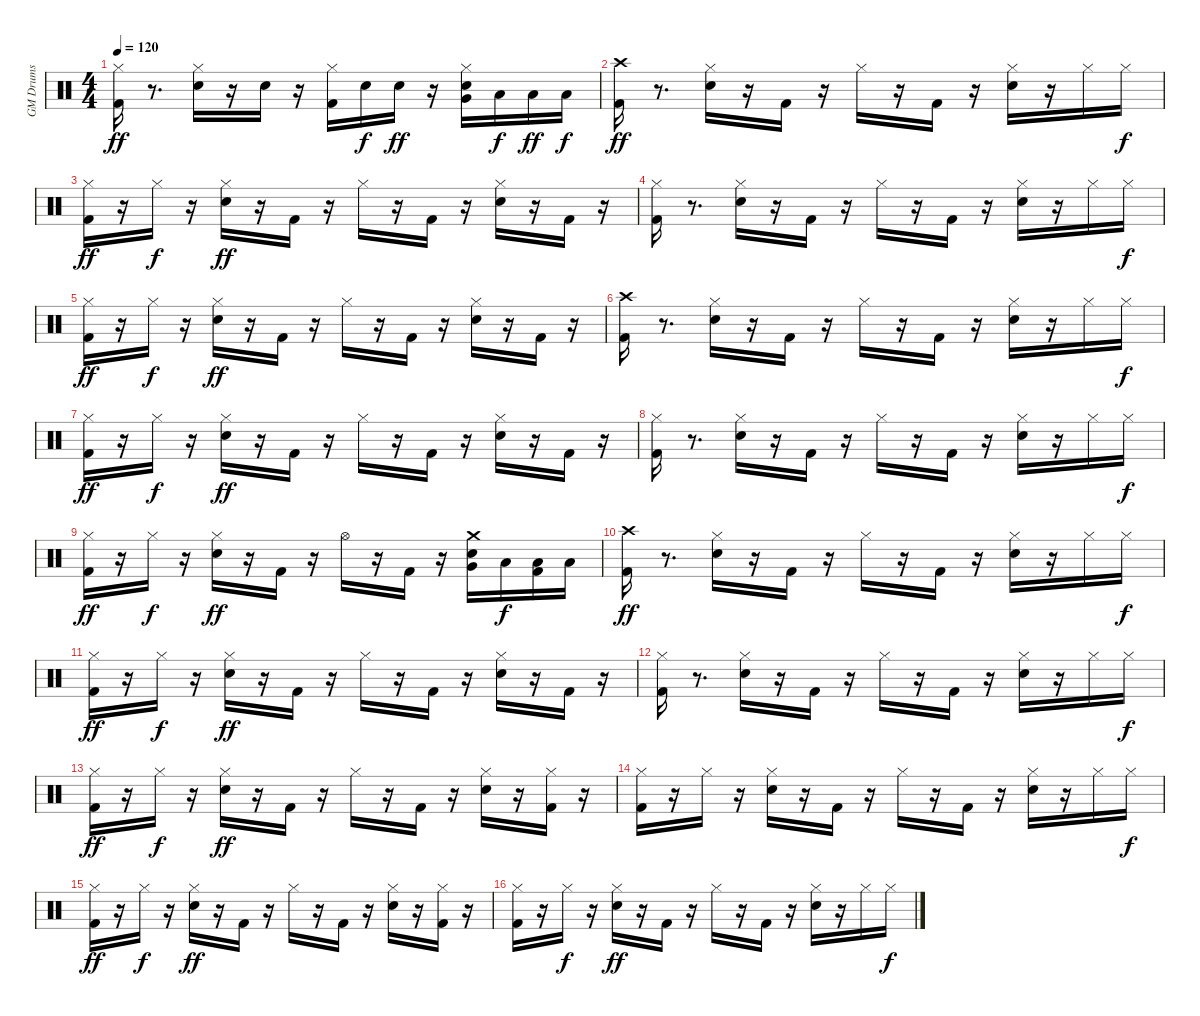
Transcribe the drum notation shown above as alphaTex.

\track ("GM Drums" "GM Drums") {instrument percussion}
\staff {score}
\articulation defaults
\ts (4 4)
\tempo 120
\clef neutral
\ks c
("Kick (hit) 2" "Hi-Hat (closed)").16{dy ff} r.8{d} ("Snare (hit) 2" "Hi-Hat (closed)").16 r.16 "Snare (hit) 2".16 r.16 ("Kick (hit) 2" "Hi-Hat (closed)").16 "Snare (hit) 2".16{dy f} "Snare (hit) 2".16{dy ff} r.16 ("Snare (hit) 2" "Hi-Hat (closed)" "Very Low Tom (hit)").16 "Low Floor Tom (hit)".16{dy f} "Low Floor Tom (hit)".16{dy ff} "Low Floor Tom (hit)".16{dy f} |
("Kick (hit) 2" "Crash high (hit)").16{dy ff} r.8{d} ("Snare (hit) 2" "Hi-Hat (closed)").16 r.16 "Kick (hit) 2".16 r.16 "Hi-Hat (closed)".16 r.16 "Kick (hit) 2".16 r.16 ("Snare (hit) 2" "Hi-Hat (closed)").16 r.16 "Hi-Hat (closed)".16 "Hi-Hat (closed)".16{dy f} |
("Kick (hit) 2" "Hi-Hat (closed)").16{dy ff} r.16 "Hi-Hat (closed)".16{dy f} r.16 ("Snare (hit) 2" "Hi-Hat (closed)").16{dy ff} r.16 "Kick (hit) 2".16 r.16 "Hi-Hat (closed)".16 r.16 "Kick (hit) 2".16 r.16 ("Snare (hit) 2" "Hi-Hat (closed)").16 r.16 "Kick (hit) 2".16 r.16 |
("Kick (hit) 2" "Hi-Hat (closed)").16 r.8{d} ("Snare (hit) 2" "Hi-Hat (closed)").16 r.16 "Kick (hit) 2".16 r.16 "Hi-Hat (closed)".16 r.16 "Kick (hit) 2".16 r.16 ("Snare (hit) 2" "Hi-Hat (closed)").16 r.16 "Hi-Hat (closed)".16 "Hi-Hat (closed)".16{dy f} |
("Kick (hit) 2" "Hi-Hat (closed)").16{dy ff} r.16 "Hi-Hat (closed)".16{dy f} r.16 ("Snare (hit) 2" "Hi-Hat (closed)").16{dy ff} r.16 "Kick (hit) 2".16 r.16 "Hi-Hat (closed)".16 r.16 "Kick (hit) 2".16 r.16 ("Snare (hit) 2" "Hi-Hat (closed)").16 r.16 "Kick (hit) 2".16 r.16 |
("Kick (hit) 2" "Crash high (hit)").16 r.8{d} ("Snare (hit) 2" "Hi-Hat (closed)").16 r.16 "Kick (hit) 2".16 r.16 "Hi-Hat (closed)".16 r.16 "Kick (hit) 2".16 r.16 ("Snare (hit) 2" "Hi-Hat (closed)").16 r.16 "Hi-Hat (closed)".16 "Hi-Hat (closed)".16{dy f} |
("Kick (hit) 2" "Hi-Hat (closed)").16{dy ff} r.16 "Hi-Hat (closed)".16{dy f} r.16 ("Snare (hit) 2" "Hi-Hat (closed)").16{dy ff} r.16 "Kick (hit) 2".16 r.16 "Hi-Hat (closed)".16 r.16 "Kick (hit) 2".16 r.16 ("Snare (hit) 2" "Hi-Hat (closed)").16 r.16 "Kick (hit) 2".16 r.16 |
("Kick (hit) 2" "Hi-Hat (closed)").16 r.8{d} ("Snare (hit) 2" "Hi-Hat (closed)").16 r.16 "Kick (hit) 2".16 r.16 "Hi-Hat (closed)".16 r.16 "Kick (hit) 2".16 r.16 ("Snare (hit) 2" "Hi-Hat (closed)").16 r.16 "Hi-Hat (closed)".16 "Hi-Hat (closed)".16{dy f} |
("Kick (hit) 2" "Hi-Hat (closed)").16{dy ff} r.16 "Hi-Hat (closed)".16{dy f} r.16 ("Snare (hit) 2" "Hi-Hat (closed)").16{dy ff} r.16 "Kick (hit) 2".16 r.16 "Hi-Hat (open)".16 r.16 "Kick (hit) 2".16 r.16 ("Snare (hit) 2" "Very Low Tom (hit)" "Crash medium (hit)").16 "Low Floor Tom (hit)".16{dy f} ("Kick (hit) 2" "Low Floor Tom (hit)").16 "Low Floor Tom (hit)".16 |
("Kick (hit) 2" "Crash high (hit)").16{dy ff} r.8{d} ("Snare (hit) 2" "Hi-Hat (closed)").16 r.16 "Kick (hit) 2".16 r.16 "Hi-Hat (closed)".16 r.16 "Kick (hit) 2".16 r.16 ("Snare (hit) 2" "Hi-Hat (closed)").16 r.16 "Hi-Hat (closed)".16 "Hi-Hat (closed)".16{dy f} |
("Kick (hit) 2" "Hi-Hat (closed)").16{dy ff} r.16 "Hi-Hat (closed)".16{dy f} r.16 ("Snare (hit) 2" "Hi-Hat (closed)").16{dy ff} r.16 "Kick (hit) 2".16 r.16 "Hi-Hat (closed)".16 r.16 "Kick (hit) 2".16 r.16 ("Snare (hit) 2" "Hi-Hat (closed)").16 r.16 "Kick (hit) 2".16 r.16 |
("Kick (hit) 2" "Hi-Hat (closed)").16 r.8{d} ("Snare (hit) 2" "Hi-Hat (closed)").16 r.16 "Kick (hit) 2".16 r.16 "Hi-Hat (closed)".16 r.16 "Kick (hit) 2".16 r.16 ("Snare (hit) 2" "Hi-Hat (closed)").16 r.16 "Hi-Hat (closed)".16 "Hi-Hat (closed)".16{dy f} |
("Kick (hit) 2" "Hi-Hat (closed)").16{dy ff} r.16 "Hi-Hat (closed)".16{dy f} r.16 ("Snare (hit) 2" "Hi-Hat (closed)").16{dy ff} r.16 "Kick (hit) 2".16 r.16 "Hi-Hat (closed)".16 r.16 "Kick (hit) 2".16 r.16 ("Snare (hit) 2" "Hi-Hat (closed)").16 r.16 ("Kick (hit) 2" "Hi-Hat (closed)").16 r.16 |
("Kick (hit) 2" "Hi-Hat (closed)").16 r.16 "Hi-Hat (closed)".16 r.16 ("Snare (hit) 2" "Hi-Hat (closed)").16 r.16 "Kick (hit) 2".16 r.16 "Hi-Hat (closed)".16 r.16 "Kick (hit) 2".16 r.16 ("Snare (hit) 2" "Hi-Hat (closed)").16 r.16 "Hi-Hat (closed)".16 "Hi-Hat (closed)".16{dy f} |
("Kick (hit) 2" "Hi-Hat (closed)").16{dy ff} r.16 "Hi-Hat (closed)".16{dy f} r.16 ("Snare (hit) 2" "Hi-Hat (closed)").16{dy ff} r.16 "Kick (hit) 2".16 r.16 "Hi-Hat (closed)".16 r.16 "Kick (hit) 2".16 r.16 ("Snare (hit) 2" "Hi-Hat (closed)").16 r.16 ("Kick (hit) 2" "Hi-Hat (closed)").16 r.16 |
("Kick (hit) 2" "Hi-Hat (closed)").16 r.16 "Hi-Hat (closed)".16{dy f} r.16 ("Snare (hit) 2" "Hi-Hat (closed)").16{dy ff} r.16 "Kick (hit) 2".16 r.16 "Hi-Hat (closed)".16 r.16 "Kick (hit) 2".16 r.16 ("Snare (hit) 2" "Hi-Hat (closed)").16 r.16 "Hi-Hat (closed)".16 "Hi-Hat (closed)".16{dy f}
